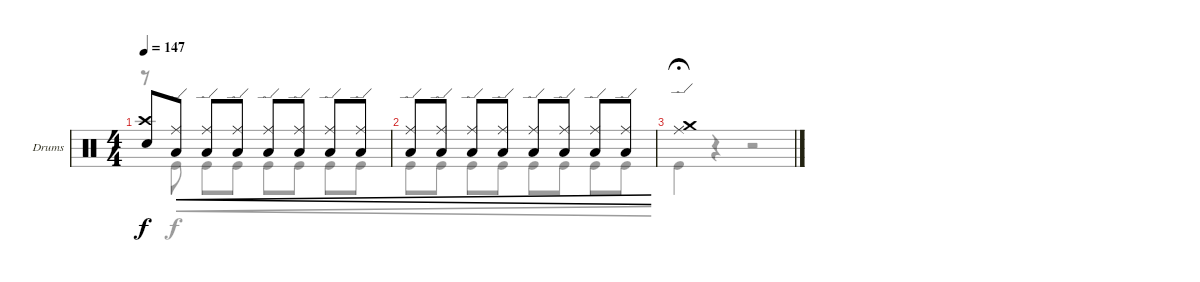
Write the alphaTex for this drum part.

\defaultSystemsLayout 4
\bracketExtendMode groupsimilarinstruments
\firstSystemTrackNameOrientation horizontal
\otherSystemsTrackNameOrientation horizontal
\track ("Drums" "Drums") {instrument percussion}
\staff {score}
\articulation defaults
\voice
\ts (4 4)
\tempo 147
\clef neutral
\ks c
("Crash high (hit)" "Snare (hit) 2").8{dy f} ("Low Tom (hit)" "Ride (edge)").8{cre} ("Low Tom (hit)" "Ride (edge)").8{cre} ("Low Tom (hit)" "Ride (edge)").8{cre} ("Low Tom (hit)" "Ride (edge)").8{cre} ("Low Tom (hit)" "Ride (edge)").8{cre} ("Low Tom (hit)" "Ride (edge)").8{cre} ("Low Tom (hit)" "Ride (edge)").8{cre} |
("Low Tom (hit)" "Ride (edge)").8{cre} ("Low Tom (hit)" "Ride (edge)").8{cre} ("Low Tom (hit)" "Ride (edge)").8{cre} ("Low Tom (hit)" "Ride (edge)").8{cre} ("Low Tom (hit)" "Ride (edge)").8{cre} ("Low Tom (hit)" "Ride (edge)").8{cre} ("Low Tom (hit)" "Ride (edge)").8{cre} ("Low Tom (hit)" "Ride (edge)").8{cre} |
("Ride (edge)" "Crash medium (hit)").1{fermata (medium 1)}
\voice
\clef neutral
\ottava regular
\simile none
\ks c
r.8{dy f} "Kick (hit)".8{cre} "Kick (hit)".8{cre} "Kick (hit)".8{cre} "Kick (hit)".8{cre} "Kick (hit)".8{cre} "Kick (hit)".8{cre} "Kick (hit)".8{cre} |
"Kick (hit)".8{cre} "Kick (hit)".8{cre} "Kick (hit)".8{cre} "Kick (hit)".8{cre} "Kick (hit)".8{cre} "Kick (hit)".8{cre} "Kick (hit)".8{cre} "Kick (hit)".8{cre} |
"Kick (hit)".4{fermata (medium 1)} r.4 r.2
